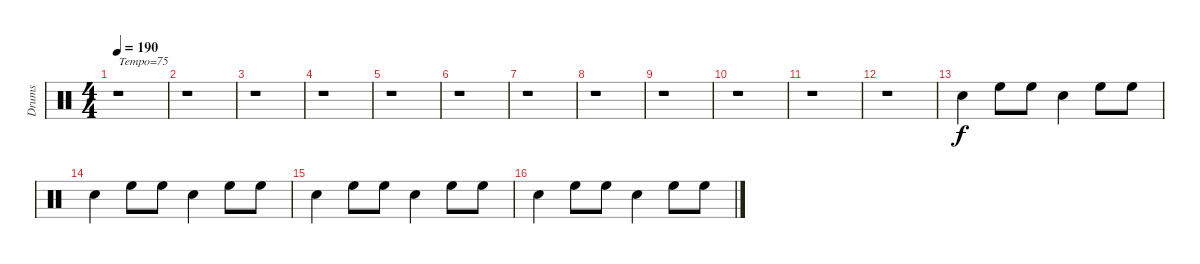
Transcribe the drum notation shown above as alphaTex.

\track ("Drums" "Drums") {instrument percussion}
\staff {score}
\articulation defaults
\ts (4 4)
\tempo 190
\clef neutral
\ks c
r.1{txt "Tempo=75" dy f} |
r.1 |
r.1 |
r.1 |
r.1 |
r.1 |
r.1 |
r.1 |
r.1 |
r.1 |
r.1 |
r.1 |
"Electric Snare (hit)".4 "High Floor Tom (hit)".8 "High Floor Tom (hit)".8 "Electric Snare (hit)".4 "High Floor Tom (hit)".8 "High Floor Tom (hit)".8 |
"Electric Snare (hit)".4 "High Floor Tom (hit)".8 "High Floor Tom (hit)".8 "Electric Snare (hit)".4 "High Floor Tom (hit)".8 "High Floor Tom (hit)".8 |
"Electric Snare (hit)".4 "High Floor Tom (hit)".8 "High Floor Tom (hit)".8 "Electric Snare (hit)".4 "High Floor Tom (hit)".8 "High Floor Tom (hit)".8 |
"Electric Snare (hit)".4 "High Floor Tom (hit)".8 "High Floor Tom (hit)".8 "Electric Snare (hit)".4 "High Floor Tom (hit)".8 "High Floor Tom (hit)".8
